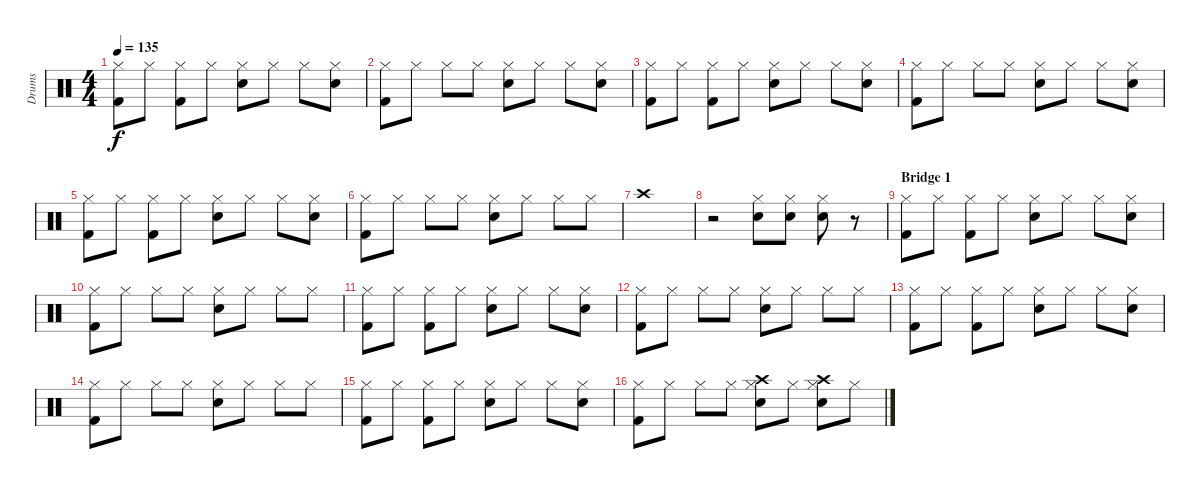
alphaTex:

\track ("Drums" "Drums") {instrument percussion}
\staff {score}
\articulation defaults
\ts (4 4)
\tempo 135
\clef neutral
\ks c
("Kick (hit) 2" "Hi-Hat (closed)").8{dy f} "Hi-Hat (closed)".8 ("Kick (hit) 2" "Hi-Hat (closed)").8 "Hi-Hat (closed)".8 ("Snare (hit) 2" "Hi-Hat (closed)").8 "Hi-Hat (closed)".8 "Hi-Hat (closed)".8 ("Snare (hit) 2" "Hi-Hat (closed)").8 |
("Kick (hit) 2" "Hi-Hat (closed)").8 "Hi-Hat (closed)".8 "Hi-Hat (closed)".8 "Hi-Hat (closed)".8 ("Snare (hit) 2" "Hi-Hat (closed)").8 "Hi-Hat (closed)".8 "Hi-Hat (closed)".8 ("Snare (hit) 2" "Hi-Hat (closed)").8 |
("Kick (hit) 2" "Hi-Hat (closed)").8 "Hi-Hat (closed)".8 ("Kick (hit) 2" "Hi-Hat (closed)").8 "Hi-Hat (closed)".8 ("Snare (hit) 2" "Hi-Hat (closed)").8 "Hi-Hat (closed)".8 "Hi-Hat (closed)".8 ("Snare (hit) 2" "Hi-Hat (closed)").8 |
("Kick (hit) 2" "Hi-Hat (closed)").8 "Hi-Hat (closed)".8 "Hi-Hat (closed)".8 "Hi-Hat (closed)".8 ("Snare (hit) 2" "Hi-Hat (closed)").8 "Hi-Hat (closed)".8 "Hi-Hat (closed)".8 ("Snare (hit) 2" "Hi-Hat (closed)").8 |
("Kick (hit) 2" "Hi-Hat (closed)").8 "Hi-Hat (closed)".8 ("Kick (hit) 2" "Hi-Hat (closed)").8 "Hi-Hat (closed)".8 ("Snare (hit) 2" "Hi-Hat (closed)").8 "Hi-Hat (closed)".8 "Hi-Hat (closed)".8 ("Snare (hit) 2" "Hi-Hat (closed)").8 |
("Kick (hit) 2" "Hi-Hat (closed)").8 "Hi-Hat (closed)".8 "Hi-Hat (closed)".8 "Hi-Hat (closed)".8 ("Snare (hit) 2" "Hi-Hat (closed)").8 "Hi-Hat (closed)".8 "Hi-Hat (closed)".8 "Hi-Hat (closed)".8 |
"Crash high (hit)".1 |
r.2 ("Snare (hit) 2" "Hi-Hat (closed)").8 ("Snare (hit) 2" "Hi-Hat (closed)").8 ("Snare (hit) 2" "Hi-Hat (closed)").8 r.8 |
\section ("" "Bridge 1")
("Kick (hit) 2" "Hi-Hat (closed)").8 "Hi-Hat (closed)".8 ("Kick (hit) 2" "Hi-Hat (closed)").8 "Hi-Hat (closed)".8 ("Snare (hit) 2" "Hi-Hat (closed)").8 "Hi-Hat (closed)".8 "Hi-Hat (closed)".8 ("Snare (hit) 2" "Hi-Hat (closed)").8 |
("Kick (hit) 2" "Hi-Hat (closed)").8 "Hi-Hat (closed)".8 "Hi-Hat (closed)".8 "Hi-Hat (closed)".8 ("Snare (hit) 2" "Hi-Hat (closed)").8 "Hi-Hat (closed)".8 "Hi-Hat (closed)".8 "Hi-Hat (closed)".8 |
("Kick (hit) 2" "Hi-Hat (closed)").8 "Hi-Hat (closed)".8 ("Kick (hit) 2" "Hi-Hat (closed)").8 "Hi-Hat (closed)".8 ("Snare (hit) 2" "Hi-Hat (closed)").8 "Hi-Hat (closed)".8 "Hi-Hat (closed)".8 ("Snare (hit) 2" "Hi-Hat (closed)").8 |
("Kick (hit) 2" "Hi-Hat (closed)").8 "Hi-Hat (closed)".8 "Hi-Hat (closed)".8 "Hi-Hat (closed)".8 ("Snare (hit) 2" "Hi-Hat (closed)").8 "Hi-Hat (closed)".8 "Hi-Hat (closed)".8 "Hi-Hat (closed)".8 |
("Kick (hit) 2" "Hi-Hat (closed)").8 "Hi-Hat (closed)".8 ("Kick (hit) 2" "Hi-Hat (closed)").8 "Hi-Hat (closed)".8 ("Snare (hit) 2" "Hi-Hat (closed)").8 "Hi-Hat (closed)".8 "Hi-Hat (closed)".8 ("Snare (hit) 2" "Hi-Hat (closed)").8 |
("Kick (hit) 2" "Hi-Hat (closed)").8 "Hi-Hat (closed)".8 "Hi-Hat (closed)".8 "Hi-Hat (closed)".8 ("Snare (hit) 2" "Hi-Hat (closed)").8 "Hi-Hat (closed)".8 "Hi-Hat (closed)".8 "Hi-Hat (closed)".8 |
("Kick (hit) 2" "Hi-Hat (closed)").8 "Hi-Hat (closed)".8 ("Kick (hit) 2" "Hi-Hat (closed)").8 "Hi-Hat (closed)".8 ("Snare (hit) 2" "Hi-Hat (closed)").8 "Hi-Hat (closed)".8 "Hi-Hat (closed)".8 ("Snare (hit) 2" "Hi-Hat (closed)").8 |
("Kick (hit) 2" "Hi-Hat (closed)").8 "Hi-Hat (closed)".8 "Hi-Hat (closed)".8 "Hi-Hat (closed)".8 ("Snare (hit) 2" "Hi-Hat (closed)" "Crash high (hit)").8 "Hi-Hat (closed)".8 ("Snare (hit) 2" "Hi-Hat (closed)" "Crash high (hit)").8 "Hi-Hat (closed)".8
